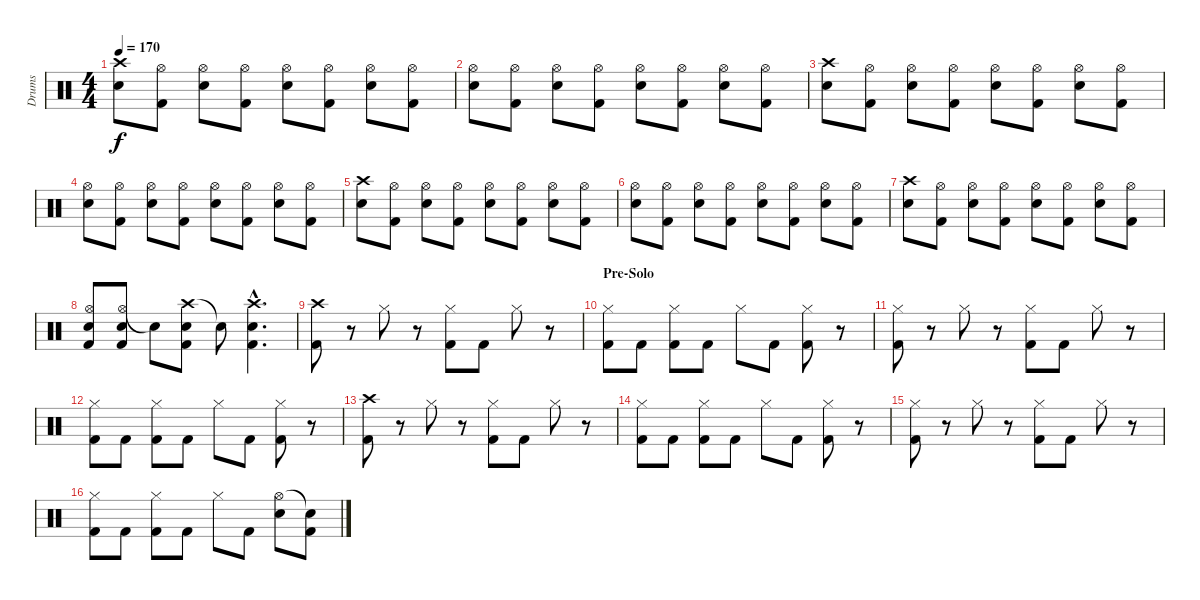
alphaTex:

\track ("Drums" "Drums") {instrument percussion}
\staff {score}
\articulation defaults
\ts (4 4)
\tempo 170
\clef neutral
\ks c
("Crash high (hit)" "Electric Snare (hit)").8{dy f} ("Hi-Hat (open)" "Kick (hit) 2").8 ("Hi-Hat (open)" "Electric Snare (hit)").8 ("Hi-Hat (open)" "Kick (hit) 2").8 ("Hi-Hat (open)" "Electric Snare (hit)").8 ("Hi-Hat (open)" "Kick (hit) 2").8 ("Hi-Hat (open)" "Electric Snare (hit)").8 ("Hi-Hat (open)" "Kick (hit) 2").8 |
("Hi-Hat (open)" "Electric Snare (hit)").8 ("Hi-Hat (open)" "Kick (hit) 2").8 ("Hi-Hat (open)" "Electric Snare (hit)").8 ("Hi-Hat (open)" "Kick (hit) 2").8 ("Hi-Hat (open)" "Electric Snare (hit)").8 ("Hi-Hat (open)" "Kick (hit) 2").8 ("Hi-Hat (open)" "Electric Snare (hit)").8 ("Hi-Hat (open)" "Kick (hit) 2").8 |
("Crash high (hit)" "Electric Snare (hit)").8 ("Hi-Hat (open)" "Kick (hit) 2").8 ("Hi-Hat (open)" "Electric Snare (hit)").8 ("Hi-Hat (open)" "Kick (hit) 2").8 ("Hi-Hat (open)" "Electric Snare (hit)").8 ("Hi-Hat (open)" "Kick (hit) 2").8 ("Hi-Hat (open)" "Electric Snare (hit)").8 ("Hi-Hat (open)" "Kick (hit) 2").8 |
("Hi-Hat (open)" "Electric Snare (hit)").8 ("Hi-Hat (open)" "Kick (hit) 2").8 ("Hi-Hat (open)" "Electric Snare (hit)").8 ("Hi-Hat (open)" "Kick (hit) 2").8 ("Hi-Hat (open)" "Electric Snare (hit)").8 ("Hi-Hat (open)" "Kick (hit) 2").8 ("Hi-Hat (open)" "Electric Snare (hit)").8 ("Hi-Hat (open)" "Kick (hit) 2").8 |
("Crash high (hit)" "Electric Snare (hit)").8 ("Hi-Hat (open)" "Kick (hit) 2").8 ("Hi-Hat (open)" "Electric Snare (hit)").8 ("Hi-Hat (open)" "Kick (hit) 2").8 ("Hi-Hat (open)" "Electric Snare (hit)").8 ("Hi-Hat (open)" "Kick (hit) 2").8 ("Hi-Hat (open)" "Electric Snare (hit)").8 ("Hi-Hat (open)" "Kick (hit) 2").8 |
("Hi-Hat (open)" "Electric Snare (hit)").8 ("Hi-Hat (open)" "Kick (hit) 2").8 ("Hi-Hat (open)" "Electric Snare (hit)").8 ("Hi-Hat (open)" "Kick (hit) 2").8 ("Hi-Hat (open)" "Electric Snare (hit)").8 ("Hi-Hat (open)" "Kick (hit) 2").8 ("Hi-Hat (open)" "Electric Snare (hit)").8 ("Hi-Hat (open)" "Kick (hit) 2").8 |
("Crash high (hit)" "Electric Snare (hit)").8 ("Hi-Hat (open)" "Kick (hit) 2").8 ("Hi-Hat (open)" "Electric Snare (hit)").8 ("Hi-Hat (open)" "Kick (hit) 2").8 ("Hi-Hat (open)" "Electric Snare (hit)").8 ("Hi-Hat (open)" "Kick (hit) 2").8 ("Hi-Hat (open)" "Electric Snare (hit)").8 ("Hi-Hat (open)" "Kick (hit) 2").8 |
("Hi-Hat (open)" "Electric Snare (hit)" "Kick (hit) 2").8 ("Hi-Hat (open)" "Electric Snare (hit)" "Kick (hit) 2").8 "Snare (hit)"{t}.8 ("Crash high (hit)" "Electric Snare (hit)" "Kick (hit) 2").8 "Snare (hit)"{t}.8 ("Crash high (hit)"{hac} "Electric Snare (hit)"{hac} "Kick (hit) 2"{hac}).4{d} |
("Crash high (hit)" "Kick (hit) 2").8 r.8 "Hi-Hat (closed)".8 r.8 ("Hi-Hat (closed)" "Kick (hit) 2").8 "Kick (hit) 2".8 "Hi-Hat (closed)".8 r.8 |
\section ("" "Pre-Solo")
("Hi-Hat (closed)" "Kick (hit) 2").8 "Kick (hit) 2".8 ("Hi-Hat (closed)" "Kick (hit) 2").8 "Kick (hit) 2".8 "Hi-Hat (closed)".8 "Kick (hit) 2".8 ("Hi-Hat (closed)" "Kick (hit) 2").8 r.8 |
("Hi-Hat (closed)" "Kick (hit) 2").8 r.8 "Hi-Hat (closed)".8 r.8 ("Hi-Hat (closed)" "Kick (hit) 2").8 "Kick (hit) 2".8 "Hi-Hat (closed)".8 r.8 |
("Hi-Hat (closed)" "Kick (hit) 2").8 "Kick (hit) 2".8 ("Hi-Hat (closed)" "Kick (hit) 2").8 "Kick (hit) 2".8 "Hi-Hat (closed)".8 "Kick (hit) 2".8 ("Hi-Hat (closed)" "Kick (hit) 2").8 r.8 |
("Crash high (hit)" "Kick (hit) 2").8 r.8 "Hi-Hat (closed)".8 r.8 ("Hi-Hat (closed)" "Kick (hit) 2").8 "Kick (hit) 2".8 "Hi-Hat (closed)".8 r.8 |
("Hi-Hat (closed)" "Kick (hit) 2").8 "Kick (hit) 2".8 ("Hi-Hat (closed)" "Kick (hit) 2").8 "Kick (hit) 2".8 "Hi-Hat (closed)".8 "Kick (hit) 2".8 ("Hi-Hat (closed)" "Kick (hit) 2").8 r.8 |
("Hi-Hat (closed)" "Kick (hit) 2").8 r.8 "Hi-Hat (closed)".8 r.8 ("Hi-Hat (closed)" "Kick (hit) 2").8 "Kick (hit) 2".8 "Hi-Hat (closed)".8 r.8 |
("Hi-Hat (closed)" "Kick (hit) 2").8 "Kick (hit) 2".8 ("Hi-Hat (closed)" "Kick (hit) 2").8 "Kick (hit) 2".8 "Hi-Hat (closed)".8 "Kick (hit) 2".8 ("Hi-Hat (open)" "Electric Snare (hit)").8 ("Snare (hit)"{t} "Kick (hit) 2").8
